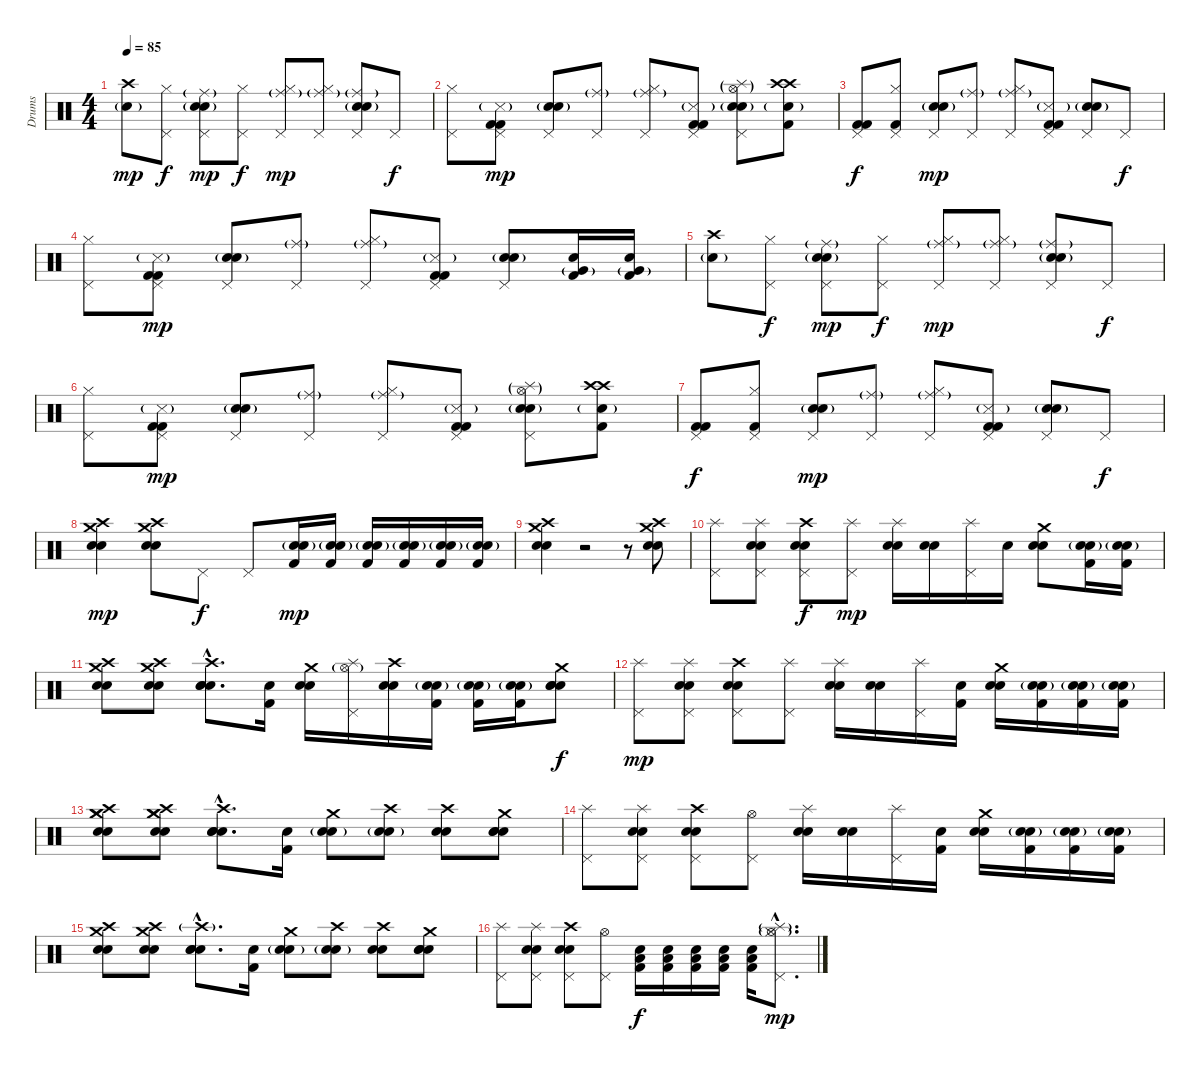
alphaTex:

\track ("Drums" "Drums") {instrument percussion}
\staff {score}
\articulation defaults
\ts (4 4)
\tempo 85
\clef neutral
\ks c
("Crash high (hit)" "Electric Snare (hit)"{g}).8{dy mp} ("Pedal Hi-Hat (hit)" "Hi-Hat (closed)").8{dy f} ("Pedal Hi-Hat (hit)" "Electric Snare (hit)" "Snare (hit) 2"{g} "Ride (middle)"{g}).8{dy mp} ("Pedal Hi-Hat (hit)" "Hi-Hat (closed)").8{dy f} ("Pedal Hi-Hat (hit)" "Hi-Hat (closed)" "Ride (middle)"{g}).8{dy mp} ("Pedal Hi-Hat (hit)" "Hi-Hat (closed)" "Ride (middle)"{g}).8 ("Pedal Hi-Hat (hit)" "Electric Snare (hit)" "Snare (hit) 2"{g} "Ride (middle)"{g}).8 "Pedal Hi-Hat (hit)".8{dy f} |
("Pedal Hi-Hat (hit)" "Hi-Hat (closed)").8 ("Pedal Hi-Hat (hit)" "Kick (hit) 2" "Kick (hit) 2" "Snare (side stick) 3"{g}).8{dy mp} ("Pedal Hi-Hat (hit)" "Electric Snare (hit)" "Snare (hit) 2"{g}).8 ("Pedal Hi-Hat (hit)" "Ride (middle)"{g}).8 ("Pedal Hi-Hat (hit)" "Hi-Hat (closed)" "Ride (middle)"{g}).8 ("Pedal Hi-Hat (hit)" "Kick (hit) 2" "Kick (hit) 2" "Snare (side stick) 3"{g}).8 ("Pedal Hi-Hat (hit)" "Electric Snare (hit)" "Snare (hit) 2"{g} "Splash (hit)"{g} "Hi-Hat (open)"{g}).8 ("Crash high (hit)" "Crash high (hit)" "Electric Snare (hit)"{g} "Kick (hit) 2").8 |
("Pedal Hi-Hat (hit)" "Kick (hit) 2" "Kick (hit) 2").8{dy f} ("Pedal Hi-Hat (hit)" "Hi-Hat (closed)" "Kick (hit) 2").8 ("Pedal Hi-Hat (hit)" "Electric Snare (hit)" "Snare (hit) 2"{g}).8{dy mp} ("Pedal Hi-Hat (hit)" "Ride (middle)"{g}).8 ("Pedal Hi-Hat (hit)" "Hi-Hat (closed)" "Ride (middle)"{g}).8 ("Pedal Hi-Hat (hit)" "Kick (hit) 2" "Kick (hit) 2" "Snare (side stick) 3"{g}).8 ("Pedal Hi-Hat (hit)" "Electric Snare (hit)" "Snare (hit) 2"{g}).8 "Pedal Hi-Hat (hit)".8{dy f} |
("Pedal Hi-Hat (hit)" "Hi-Hat (closed)").8 ("Pedal Hi-Hat (hit)" "Kick (hit) 2" "Kick (hit) 2" "Snare (side stick) 3"{g}).8{dy mp} ("Pedal Hi-Hat (hit)" "Electric Snare (hit)" "Snare (hit) 2"{g}).8 ("Pedal Hi-Hat (hit)" "Ride (middle)"{g}).8 ("Pedal Hi-Hat (hit)" "Hi-Hat (closed)" "Ride (middle)"{g}).8 ("Pedal Hi-Hat (hit)" "Kick (hit) 2" "Kick (hit) 2" "Snare (side stick) 3"{g}).8 ("Pedal Hi-Hat (hit)" "Electric Snare (hit)" "Snare (hit) 2"{g}).8 ("Kick (hit) 2" "Electric Snare (hit)" "Very Low Tom (hit)"{g}).16 ("Kick (hit) 2" "Electric Snare (hit)" "Very Low Tom (hit)"{g}).16 |
("Crash high (hit)" "Electric Snare (hit)"{g}).8 ("Pedal Hi-Hat (hit)" "Hi-Hat (closed)").8{dy f} ("Pedal Hi-Hat (hit)" "Electric Snare (hit)" "Snare (hit) 2"{g} "Ride (middle)"{g}).8{dy mp} ("Pedal Hi-Hat (hit)" "Hi-Hat (closed)").8{dy f} ("Pedal Hi-Hat (hit)" "Hi-Hat (closed)" "Ride (middle)"{g}).8{dy mp} ("Pedal Hi-Hat (hit)" "Hi-Hat (closed)" "Ride (middle)"{g}).8 ("Pedal Hi-Hat (hit)" "Electric Snare (hit)" "Snare (hit) 2"{g} "Ride (middle)"{g}).8 "Pedal Hi-Hat (hit)".8{dy f} |
("Pedal Hi-Hat (hit)" "Hi-Hat (closed)").8 ("Pedal Hi-Hat (hit)" "Kick (hit) 2" "Kick (hit) 2" "Snare (side stick) 3"{g}).8{dy mp} ("Pedal Hi-Hat (hit)" "Electric Snare (hit)" "Snare (hit) 2"{g}).8 ("Pedal Hi-Hat (hit)" "Ride (middle)"{g}).8 ("Pedal Hi-Hat (hit)" "Hi-Hat (closed)" "Ride (middle)"{g}).8 ("Pedal Hi-Hat (hit)" "Kick (hit) 2" "Kick (hit) 2" "Snare (side stick) 3"{g}).8 ("Pedal Hi-Hat (hit)" "Electric Snare (hit)" "Snare (hit) 2"{g} "Splash (hit)"{g} "Hi-Hat (open)"{g}).8 ("Crash high (hit)" "Crash high (hit)" "Electric Snare (hit)"{g} "Kick (hit) 2").8 |
("Pedal Hi-Hat (hit)" "Kick (hit) 2" "Kick (hit) 2").8{dy f} ("Pedal Hi-Hat (hit)" "Hi-Hat (closed)" "Kick (hit) 2").8 ("Pedal Hi-Hat (hit)" "Electric Snare (hit)" "Snare (hit) 2"{g}).8{dy mp} ("Pedal Hi-Hat (hit)" "Ride (middle)"{g}).8 ("Pedal Hi-Hat (hit)" "Hi-Hat (closed)" "Ride (middle)"{g}).8 ("Pedal Hi-Hat (hit)" "Kick (hit) 2" "Kick (hit) 2" "Snare (side stick) 3"{g}).8 ("Pedal Hi-Hat (hit)" "Electric Snare (hit)" "Snare (hit) 2"{g}).8 "Pedal Hi-Hat (hit)".8{dy f} |
("Crash medium (hit)" "Crash high (hit)" "Snare (hit) 2" "Electric Snare (hit)").4{dy mp} ("Crash medium (hit)" "Crash high (hit)" "Snare (hit) 2" "Electric Snare (hit)").8 "Pedal Hi-Hat (hit)".8{dy f} "Pedal Hi-Hat (hit)".8 ("Electric Snare (hit)" "Snare (hit) 2"{g} "Kick (hit) 2").16{dy mp} ("Electric Snare (hit)" "Snare (hit) 2"{g} "Kick (hit) 2").16 ("Electric Snare (hit)" "Snare (hit) 2"{g} "Kick (hit) 2").16 ("Electric Snare (hit)" "Snare (hit) 2"{g} "Kick (hit) 2").16 ("Electric Snare (hit)" "Snare (hit) 2"{g} "Kick (hit) 2").16 ("Electric Snare (hit)" "Snare (hit) 2"{g} "Kick (hit) 2").16 |
("Crash medium (hit)" "Crash high (hit)" "Snare (hit) 2" "Electric Snare (hit)").4 r.2 r.8 ("Crash high (hit)" "Crash medium (hit)" "Electric Snare (hit)" "Snare (hit) 2").8 |
("Pedal Hi-Hat (hit)" "Splash (hit)").8 ("Pedal Hi-Hat (hit)" "Electric Snare (hit)" "Snare (hit) 2" "Splash (hit)").8 ("Pedal Hi-Hat (hit)" "Electric Snare (hit)" "Electric Snare (hit)" "Crash high (hit)").8{dy f} ("Pedal Hi-Hat (hit)" "Splash (hit)").8{dy mp} ("Electric Snare (hit)" "Electric Snare (hit)" "Splash (hit)").16 ("Electric Snare (hit)" "Snare (hit) 2").16 ("Pedal Hi-Hat (hit)" "Splash (hit)").16 "Electric Snare (hit)".16 ("Crash medium (hit)" "Electric Snare (hit)" "Snare (hit) 2").8 ("Electric Snare (hit)" "Snare (hit) 2"{g} "Kick (hit) 2").16 ("Electric Snare (hit)" "Snare (hit) 2"{g} "Kick (hit) 2").16 |
("Crash medium (hit)" "Electric Snare (hit)" "Snare (hit) 2" "Crash high (hit)").8 ("Crash high (hit)" "Electric Snare (hit)" "Snare (hit) 2" "Crash medium (hit)").8 ("Electric Snare (hit)"{hac} "Electric Snare (hit)"{hac} "Snare (hit) 2"{hac} "Crash high (hit)").8{d} ("Electric Snare (hit)" "Kick (hit) 2").16 ("Crash medium (hit)" "Electric Snare (hit)" "Snare (hit) 2").16 ("Pedal Hi-Hat (hit)" "Splash (hit)" "Hi-Hat (open)"{g}).16 ("Crash high (hit)" "Electric Snare (hit)" "Snare (hit) 2").16 ("Electric Snare (hit)" "Snare (hit) 2"{g} "Kick (hit) 2").16 ("Electric Snare (hit)" "Snare (hit) 2"{g} "Kick (hit) 2").16 ("Electric Snare (hit)" "Snare (hit) 2"{g} "Kick (hit) 2").16 ("Electric Snare (hit)" "Electric Snare (hit)" "Snare (hit) 2" "Crash medium (hit)").8{dy f} |
("Pedal Hi-Hat (hit)" "Splash (hit)").8{dy mp} ("Pedal Hi-Hat (hit)" "Electric Snare (hit)" "Snare (hit) 2" "Splash (hit)").8 ("Pedal Hi-Hat (hit)" "Electric Snare (hit)" "Electric Snare (hit)" "Crash high (hit)").8 ("Pedal Hi-Hat (hit)" "Splash (hit)").8 ("Electric Snare (hit)" "Electric Snare (hit)" "Splash (hit)").16 ("Electric Snare (hit)" "Snare (hit) 2").16 ("Pedal Hi-Hat (hit)" "Splash (hit)").16 ("Electric Snare (hit)" "Kick (hit) 2").16 ("Crash medium (hit)" "Electric Snare (hit)" "Snare (hit) 2").16 ("Electric Snare (hit)" "Snare (hit) 2"{g} "Kick (hit) 2").16 ("Electric Snare (hit)" "Snare (hit) 2"{g} "Kick (hit) 2").16 ("Electric Snare (hit)" "Snare (hit) 2"{g} "Kick (hit) 2").16 |
("Crash medium (hit)" "Electric Snare (hit)" "Snare (hit) 2" "Crash medium (hit)" "Crash high (hit)").8 ("Crash medium (hit)" "Electric Snare (hit)" "Snare (hit) 2" "Crash medium (hit)" "Crash high (hit)").8 ("Electric Snare (hit)"{hac} "Electric Snare (hit)"{hac} "Snare (hit) 2"{hac} "Crash high (hit)").8{d} ("Electric Snare (hit)" "Kick (hit) 2").16 ("Crash medium (hit)" "Electric Snare (hit)" "Snare (hit) 2"{g}).8 ("Crash high (hit)" "Electric Snare (hit)" "Snare (hit) 2"{g}).8 ("Crash high (hit)" "Electric Snare (hit)" "Electric Snare (hit)").8 ("Electric Snare (hit)" "Electric Snare (hit)" "Snare (hit) 2" "Crash medium (hit)").8 |
("Pedal Hi-Hat (hit)" "Splash (hit)").8 ("Pedal Hi-Hat (hit)" "Electric Snare (hit)" "Snare (hit) 2" "Splash (hit)").8 ("Pedal Hi-Hat (hit)" "Electric Snare (hit)" "Electric Snare (hit)" "Crash high (hit)").8 ("Pedal Hi-Hat (hit)" "Hi-Hat (open)").8 ("Electric Snare (hit)" "Electric Snare (hit)" "Splash (hit)").16 ("Electric Snare (hit)" "Snare (hit) 2").16 ("Pedal Hi-Hat (hit)" "Splash (hit)").16 ("Electric Snare (hit)" "Kick (hit) 2").16 ("Crash medium (hit)" "Electric Snare (hit)" "Snare (hit) 2").16 ("Electric Snare (hit)" "Snare (hit) 2"{g} "Kick (hit) 2").16 ("Electric Snare (hit)" "Snare (hit) 2"{g} "Kick (hit) 2").16 ("Electric Snare (hit)" "Snare (hit) 2"{g} "Kick (hit) 2").16 |
("Crash medium (hit)" "Electric Snare (hit)" "Snare (hit) 2" "Crash high (hit)").8 ("Crash high (hit)" "Electric Snare (hit)" "Snare (hit) 2" "Crash medium (hit)").8 ("Electric Snare (hit)"{hac} "Electric Snare (hit)"{hac} "Snare (hit) 2"{hac} "Crash high (hit)"{g}).8{d} ("Electric Snare (hit)" "Kick (hit) 2").16 ("Crash medium (hit)" "Electric Snare (hit)" "Snare (hit) 2"{g}).8 ("Crash high (hit)" "Electric Snare (hit)" "Snare (hit) 2"{g}).8 ("Crash high (hit)" "Electric Snare (hit)" "Electric Snare (hit)").8 ("Electric Snare (hit)" "Electric Snare (hit)" "Snare (hit) 2" "Crash medium (hit)").8 |
("Pedal Hi-Hat (hit)" "Splash (hit)").8 ("Pedal Hi-Hat (hit)" "Electric Snare (hit)" "Snare (hit) 2" "Splash (hit)").8 ("Pedal Hi-Hat (hit)" "Electric Snare (hit)" "Electric Snare (hit)" "Crash high (hit)").8 ("Pedal Hi-Hat (hit)" "Hi-Hat (open)").8 ("Electric Snare (hit)" "Kick (hit) 2" "Low Floor Tom (hit)").16{dy f} ("Electric Snare (hit)" "Kick (hit) 2" "Low Floor Tom (hit)").16 ("Electric Snare (hit)" "Kick (hit) 2" "Low Floor Tom (hit)").16 ("Electric Snare (hit)" "Kick (hit) 2" "Low Floor Tom (hit)").16 ("Electric Snare (hit)" "Kick (hit) 2" "Low Floor Tom (hit)").16 ("Hi-Hat (closed)"{hac} "Pedal Hi-Hat (hit)"{hac} "Hi-Hat (open)"{g hac} "Splash (hit)"{g hac}).8{d dy mp}
